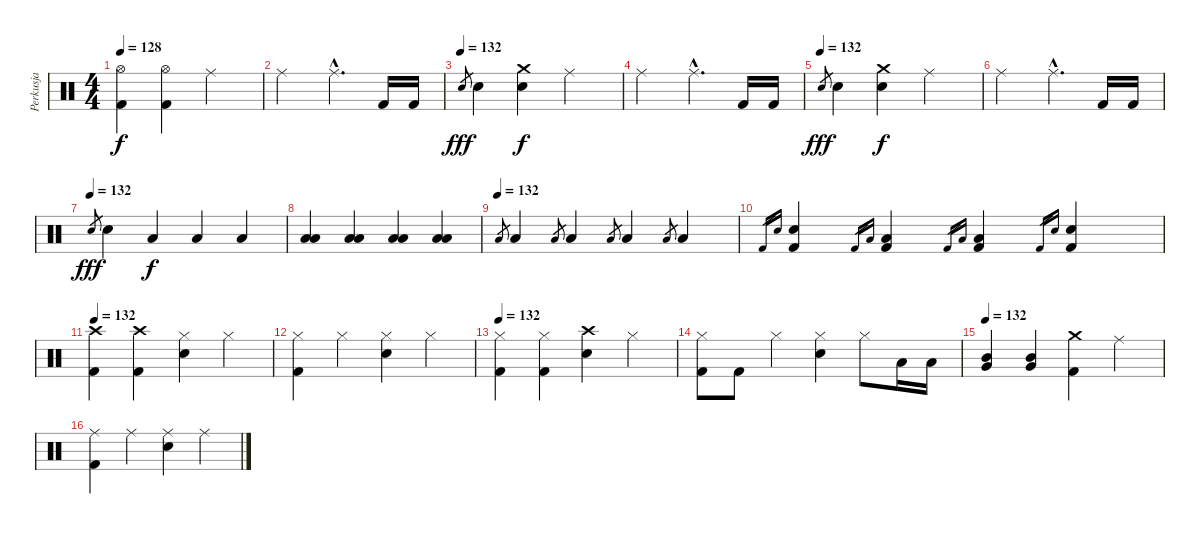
\track ("Perkusja" "Perkusja") {instrument percussion}
\staff {score}
\articulation defaults
\ts (4 4)
\tempo 128
\clef neutral
\ks c
("Hi-Hat (open)" "Kick (hit) 2").4{dy f} ("Hi-Hat (open)" "Kick (hit) 2").4 "Ride (middle)".2 |
"Ride (middle)".2 "Ride (middle)"{hac}.4{d} "Kick (hit) 2".16 "Kick (hit) 2".16 |
\tempo 128
\tempo (132)
"Electric Snare (hit)".8{gr dy fff} "Electric Snare (hit)".4 ("Crash medium (hit)" "Snare (hit) 2").4{dy f} "Ride (middle)".2 |
"Ride (middle)".2 "Ride (middle)"{hac}.4{d} "Kick (hit) 2".16 "Kick (hit) 2".16 |
\tempo 128
\tempo (132)
"Electric Snare (hit)".8{gr dy fff} "Electric Snare (hit)".4 ("Crash medium (hit)" "Snare (hit) 2").4{dy f} "Ride (middle)".2 |
"Ride (middle)".2 "Ride (middle)"{hac}.4{d} "Kick (hit) 2".16 "Kick (hit) 2".16 |
\tempo 128
\tempo (132)
"Electric Snare (hit)".8{gr dy fff} "Electric Snare (hit)".4 "Low Tom (hit)".4{dy f} "Low Tom (hit)".4 "Low Tom (hit)".4 |
("Low Tom (hit)" "Low Tom (hit)").4 ("Low Tom (hit)" "Low Tom (hit)").4 ("Low Tom (hit)" "Low Tom (hit)").4 ("Low Tom (hit)" "Low Tom (hit)").4 |
\tempo 128
\tempo (132)
"Low Tom (hit)".8{gr} "Low Tom (hit)".4 "Low Tom (hit)".8{gr} "Low Tom (hit)".4 "Low Tom (hit)".8{gr} "Low Tom (hit)".4 "Low Tom (hit)".8{gr} "Low Tom (hit)".4 |
"Kick (hit) 2".16{gr} "Snare (hit) 2".16{gr} ("Kick (hit) 2" "Snare (hit) 2").4 "Kick (hit) 2".16{gr} "Low Tom (hit)".16{gr} ("Kick (hit) 2" "Low Tom (hit)").4 "Kick (hit) 2".16{gr} "Low Tom (hit)".16{gr} ("Kick (hit) 2" "Low Tom (hit)").4 "Kick (hit) 2".16{gr} "Snare (hit) 2".16{gr} ("Kick (hit) 2" "Snare (hit) 2").4 |
\tempo 132
("Crash high (hit)" "Kick (hit) 2").4 ("Crash high (hit)" "Kick (hit) 2").4 ("Hi-Hat (closed)" "Snare (hit) 2").4 "Hi-Hat (closed)".4 |
("Hi-Hat (closed)" "Kick (hit) 2").4 "Hi-Hat (closed)".4 ("Hi-Hat (closed)" "Snare (hit) 2").4 "Hi-Hat (closed)".4 |
\tempo 132
("Hi-Hat (closed)" "Kick (hit) 2").4 ("Hi-Hat (closed)" "Kick (hit) 2").4 ("Crash high (hit)" "Snare (hit) 2").4 "Hi-Hat (closed)".4 |
("Hi-Hat (closed)" "Kick (hit) 2").8 "Kick (hit) 2".8 "Hi-Hat (closed)".4 ("Hi-Hat (closed)" "Snare (hit) 2").4 "Hi-Hat (closed)".8 "Low Tom (hit)".16 "Low Tom (hit)".16 |
\tempo 132
("Mid Tom (hit)" "Very Low Tom (hit)").4 ("Mid Tom (hit)" "Very Low Tom (hit)").4 ("Crash medium (hit)" "Kick (hit) 2").4 "Ride (middle)".4 |
("Ride (middle)" "Kick (hit) 2").4 "Ride (middle)".4 ("Ride (middle)" "Snare (hit) 2").4 "Ride (middle)".4
